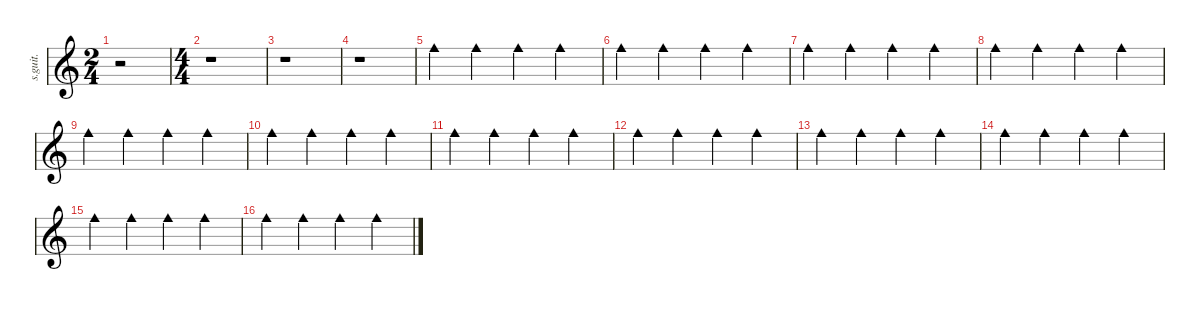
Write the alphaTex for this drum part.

\defaultSystemsLayout 4
\hideDynamics
\bracketExtendMode nobrackets
\track ("Cowbell" "s.guit.") {instrument percussion}
\staff {score}
\articulation defaults
\ts (2 4)
\beaming (8 2 2 2 2)
\tempo (107 hide)
\clef g2
\ks c
r.2{dy mp} |
\ts (4 4)
\beaming (8 2 2 2 2)
r.1 |
r.1 |
r.1 |
"Cowbell medium (hit)".4 "Cowbell medium (hit)".4 "Cowbell medium (hit)".4 "Cowbell medium (hit)".4 |
"Cowbell medium (hit)".4 "Cowbell medium (hit)".4 "Cowbell medium (hit)".4 "Cowbell medium (hit)".4 |
"Cowbell medium (hit)".4 "Cowbell medium (hit)".4 "Cowbell medium (hit)".4 "Cowbell medium (hit)".4 |
"Cowbell medium (hit)".4 "Cowbell medium (hit)".4 "Cowbell medium (hit)".4 "Cowbell medium (hit)".4 |
"Cowbell medium (hit)".4 "Cowbell medium (hit)".4 "Cowbell medium (hit)".4 "Cowbell medium (hit)".4 |
"Cowbell medium (hit)".4 "Cowbell medium (hit)".4 "Cowbell medium (hit)".4 "Cowbell medium (hit)".4 |
"Cowbell medium (hit)".4 "Cowbell medium (hit)".4 "Cowbell medium (hit)".4 "Cowbell medium (hit)".4 |
"Cowbell medium (hit)".4 "Cowbell medium (hit)".4 "Cowbell medium (hit)".4 "Cowbell medium (hit)".4 |
"Cowbell medium (hit)".4 "Cowbell medium (hit)".4 "Cowbell medium (hit)".4 "Cowbell medium (hit)".4 |
"Cowbell medium (hit)".4 "Cowbell medium (hit)".4 "Cowbell medium (hit)".4 "Cowbell medium (hit)".4 |
"Cowbell medium (hit)".4 "Cowbell medium (hit)".4 "Cowbell medium (hit)".4 "Cowbell medium (hit)".4 |
"Cowbell medium (hit)".4 "Cowbell medium (hit)".4 "Cowbell medium (hit)".4 "Cowbell medium (hit)".4
